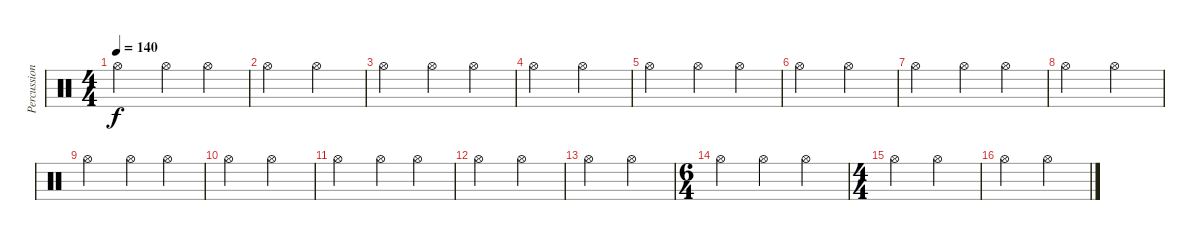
\track ("Percussions" "Percussion") {instrument percussion}
\staff {score}
\articulation defaults
\ts (4 4)
\tempo 140
\clef neutral
\ks c "Hi-Hat (open)".2{dy f} "Hi-Hat (open)".4 "Hi-Hat (open)".4
|
"Hi-Hat (open)".2 "Hi-Hat (open)".2 |
"Hi-Hat (open)".2 "Hi-Hat (open)".4 "Hi-Hat (open)".4 |
"Hi-Hat (open)".2 "Hi-Hat (open)".2 |
"Hi-Hat (open)".2 "Hi-Hat (open)".4 "Hi-Hat (open)".4 |
"Hi-Hat (open)".2 "Hi-Hat (open)".2 |
"Hi-Hat (open)".2 "Hi-Hat (open)".4 "Hi-Hat (open)".4 |
"Hi-Hat (open)".2 "Hi-Hat (open)".2 |
"Hi-Hat (open)".2 "Hi-Hat (open)".4 "Hi-Hat (open)".4 |
"Hi-Hat (open)".2 "Hi-Hat (open)".2 |
"Hi-Hat (open)".2 "Hi-Hat (open)".4 "Hi-Hat (open)".4 |
"Hi-Hat (open)".2 "Hi-Hat (open)".2 |
"Hi-Hat (open)".2 "Hi-Hat (open)".2 |
\ts (6 4)
"Hi-Hat (open)".2 "Hi-Hat (open)".2 "Hi-Hat (open)".2 |
\ts (4 4)
"Hi-Hat (open)".2 "Hi-Hat (open)".2 |
"Hi-Hat (open)".2 "Hi-Hat (open)".2
